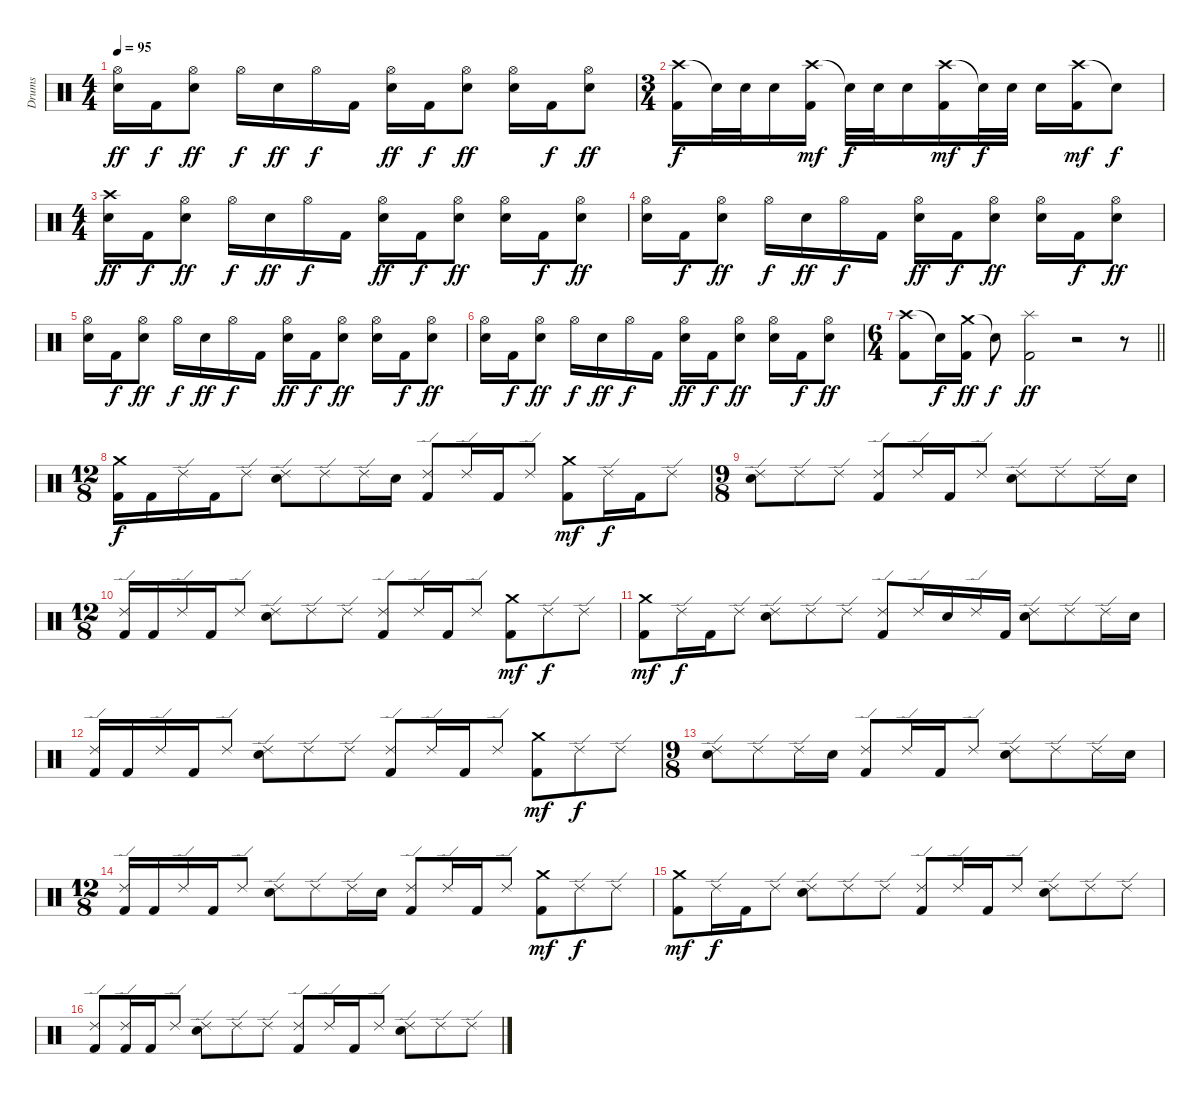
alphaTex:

\track ("Drums" "Drums") {instrument percussion}
\staff {score}
\articulation defaults
\ts (4 4)
\tempo 95
\clef neutral
\ks c
("Hi-Hat (open)" "Snare (hit) 2").16{dy ff} "Kick (hit) 2".16{dy f} ("Hi-Hat (open)" "Snare (hit) 2").8{dy ff} "Hi-Hat (open)".16{dy f} "Snare (hit) 2".16{dy ff} "Hi-Hat (open)".16{dy f} "Kick (hit) 2".16 ("Hi-Hat (open)" "Snare (hit) 2").16{dy ff} "Kick (hit) 2".16{dy f} ("Hi-Hat (open)" "Snare (hit) 2").8{dy ff} ("Hi-Hat (open)" "Snare (hit) 2").16 "Kick (hit) 2".16{dy f} ("Hi-Hat (open)" "Snare (hit) 2").8{dy ff} |
\ts (3 4)
("Crash high (hit)" "Kick (hit) 2").16{dy f} "Snare (hit)"{t}.32 "Snare (hit) 2".32 "Snare (hit) 2".16 ("Crash high (hit)" "Kick (hit) 2").16{dy mf} "Snare (hit)"{t}.32{dy f} "Snare (hit) 2".32 "Snare (hit) 2".16 ("Crash high (hit)" "Kick (hit) 2").16{dy mf} "Snare (hit)"{t}.32{dy f} "Snare (hit) 2".32 "Snare (hit) 2".16 ("Crash high (hit)" "Kick (hit) 2").16{dy mf} "Snare (hit)"{t}.8{dy f} |
\ts (4 4)
("Crash high (hit)" "Snare (hit) 2").16{dy ff} "Kick (hit) 2".16{dy f} ("Hi-Hat (open)" "Snare (hit) 2").8{dy ff} "Hi-Hat (open)".16{dy f} "Snare (hit) 2".16{dy ff} "Hi-Hat (open)".16{dy f} "Kick (hit) 2".16 ("Hi-Hat (open)" "Snare (hit) 2").16{dy ff} "Kick (hit) 2".16{dy f} ("Hi-Hat (open)" "Snare (hit) 2").8{dy ff} ("Hi-Hat (open)" "Snare (hit) 2").16 "Kick (hit) 2".16{dy f} ("Hi-Hat (open)" "Snare (hit) 2").8{dy ff} |
("Hi-Hat (open)" "Snare (hit) 2").16 "Kick (hit) 2".16{dy f} ("Hi-Hat (open)" "Snare (hit) 2").8{dy ff} "Hi-Hat (open)".16{dy f} "Snare (hit) 2".16{dy ff} "Hi-Hat (open)".16{dy f} "Kick (hit) 2".16 ("Hi-Hat (open)" "Snare (hit) 2").16{dy ff} "Kick (hit) 2".16{dy f} ("Hi-Hat (open)" "Snare (hit) 2").8{dy ff} ("Hi-Hat (open)" "Snare (hit) 2").16 "Kick (hit) 2".16{dy f} ("Hi-Hat (open)" "Snare (hit) 2").8{dy ff} |
("Hi-Hat (open)" "Snare (hit) 2").16 "Kick (hit) 2".16{dy f} ("Hi-Hat (open)" "Snare (hit) 2").8{dy ff} "Hi-Hat (open)".16{dy f} "Snare (hit) 2".16{dy ff} "Hi-Hat (open)".16{dy f} "Kick (hit) 2".16 ("Hi-Hat (open)" "Snare (hit) 2").16{dy ff} "Kick (hit) 2".16{dy f} ("Hi-Hat (open)" "Snare (hit) 2").8{dy ff} ("Hi-Hat (open)" "Snare (hit) 2").16 "Kick (hit) 2".16{dy f} ("Hi-Hat (open)" "Snare (hit) 2").8{dy ff} |
("Hi-Hat (open)" "Snare (hit) 2").16 "Kick (hit) 2".16{dy f} ("Hi-Hat (open)" "Snare (hit) 2").8{dy ff} "Hi-Hat (open)".16{dy f} "Snare (hit) 2".16{dy ff} "Hi-Hat (open)".16{dy f} "Kick (hit) 2".16 ("Hi-Hat (open)" "Snare (hit) 2").16{dy ff} "Kick (hit) 2".16{dy f} ("Hi-Hat (open)" "Snare (hit) 2").8{dy ff} ("Hi-Hat (open)" "Snare (hit) 2").16 "Kick (hit) 2".16{dy f} ("Hi-Hat (open)" "Snare (hit) 2").8{dy ff} |
\ts (6 4)
\barLineRight lightlight
("Crash high (hit)" "Kick (hit) 2").8 "Snare (hit)"{t}.16{dy f} ("Crash medium (hit)" "Kick (hit) 2").16{dy ff} "Snare (hit)"{t}.8{dy f} ("Splash (hit)" "Kick (hit) 2").2{dy ff} r.2 r.8 |
\ts (12 8)
\section ("" "")
("Crash medium (hit)" "Kick (hit) 2").16{dy f} "Kick (hit) 2".16 "Ride (edge) 2".16 "Kick (hit) 2".16 "Ride (edge) 2".8 ("Ride (edge) 2" "Snare (hit) 2").8 "Ride (edge) 2".8 "Ride (edge) 2".16 "Snare (hit) 2".16 ("Ride (edge) 2" "Kick (hit) 2").8 "Ride (edge) 2".16 "Kick (hit) 2".16 "Ride (edge) 2".8 ("Crash medium (hit)" "Kick (hit) 2").8{dy mf} "Ride (edge) 2".16{dy f} "Kick (hit) 2".16 "Ride (edge) 2".8 |
\ts (9 8)
("Ride (edge) 2" "Snare (hit) 2").8 "Ride (edge) 2".8 "Ride (edge) 2".8 ("Ride (edge) 2" "Kick (hit) 2").8 "Ride (edge) 2".16 "Kick (hit) 2".16 "Ride (edge) 2".8 ("Ride (edge) 2" "Snare (hit) 2").8 "Ride (edge) 2".8 "Ride (edge) 2".16 "Snare (hit) 2".16 |
\ts (12 8)
("Ride (edge) 2" "Kick (hit) 2").16 "Kick (hit) 2".16 "Ride (edge) 2".16 "Kick (hit) 2".16 "Ride (edge) 2".8 ("Ride (edge) 2" "Snare (hit) 2").8 "Ride (edge) 2".8 "Ride (edge) 2".8 ("Ride (edge) 2" "Kick (hit) 2").8 "Ride (edge) 2".16 "Kick (hit) 2".16 "Ride (edge) 2".8 ("Crash medium (hit)" "Kick (hit) 2").8{dy mf} "Ride (edge) 2".8{dy f} "Ride (edge) 2".8 |
("Crash medium (hit)" "Kick (hit) 2").8{dy mf} "Ride (edge) 2".16{dy f} "Kick (hit) 2".16 "Ride (edge) 2".8 ("Ride (edge) 2" "Snare (hit) 2").8 "Ride (edge) 2".8 "Ride (edge) 2".8 ("Ride (edge) 2" "Kick (hit) 2").8 "Ride (edge) 2".16 "Snare (hit) 2".16 "Ride (edge) 2".16 "Kick (hit) 2".16 ("Ride (edge) 2" "Snare (hit) 2").8 "Ride (edge) 2".8 "Ride (edge) 2".16 "Snare (hit) 2".16 |
("Ride (edge) 2" "Kick (hit) 2").16 "Kick (hit) 2".16 "Ride (edge) 2".16 "Kick (hit) 2".16 "Ride (edge) 2".8 ("Ride (edge) 2" "Snare (hit) 2").8 "Ride (edge) 2".8 "Ride (edge) 2".8 ("Ride (edge) 2" "Kick (hit) 2").8 "Ride (edge) 2".16 "Kick (hit) 2".16 "Ride (edge) 2".8 ("Crash medium (hit)" "Kick (hit) 2").8{dy mf} "Ride (edge) 2".8{dy f} "Ride (edge) 2".8 |
\ts (9 8)
("Ride (edge) 2" "Snare (hit) 2").8 "Ride (edge) 2".8 "Ride (edge) 2".16 "Snare (hit) 2".16 ("Ride (edge) 2" "Kick (hit) 2").8 "Ride (edge) 2".16 "Kick (hit) 2".16 "Ride (edge) 2".8 ("Ride (edge) 2" "Snare (hit) 2").8 "Ride (edge) 2".8 "Ride (edge) 2".16 "Snare (hit) 2".16 |
\ts (12 8)
("Ride (edge) 2" "Kick (hit) 2").16 "Kick (hit) 2".16 "Ride (edge) 2".16 "Kick (hit) 2".16 "Ride (edge) 2".8 ("Ride (edge) 2" "Snare (hit) 2").8 "Ride (edge) 2".8 "Ride (edge) 2".16 "Snare (hit) 2".16 ("Ride (edge) 2" "Kick (hit) 2").8 "Ride (edge) 2".16 "Kick (hit) 2".16 "Ride (edge) 2".8 ("Crash medium (hit)" "Kick (hit) 2").8{dy mf} "Ride (edge) 2".8{dy f} "Ride (edge) 2".8 |
("Crash medium (hit)" "Kick (hit) 2").8{dy mf} "Ride (edge) 2".16{dy f} "Kick (hit) 2".16 "Ride (edge) 2".8 ("Ride (edge) 2" "Snare (hit) 2").8 "Ride (edge) 2".8 "Ride (edge) 2".8 ("Ride (edge) 2" "Kick (hit) 2").8 "Ride (edge) 2".16 "Kick (hit) 2".16 "Ride (edge) 2".8 ("Ride (edge) 2" "Snare (hit) 2").8 "Ride (edge) 2".8 "Ride (edge) 2".8 |
("Ride (edge) 2" "Kick (hit) 2").8 ("Ride (edge) 2" "Kick (hit) 2").16 "Kick (hit) 2".16 "Ride (edge) 2".8 ("Ride (edge) 2" "Snare (hit) 2").8 "Ride (edge) 2".8 "Ride (edge) 2".8 ("Ride (edge) 2" "Kick (hit) 2").8 "Ride (edge) 2".16 "Kick (hit) 2".16 "Ride (edge) 2".8 ("Ride (edge) 2" "Snare (hit) 2").8 "Ride (edge) 2".8 "Ride (edge) 2".8
